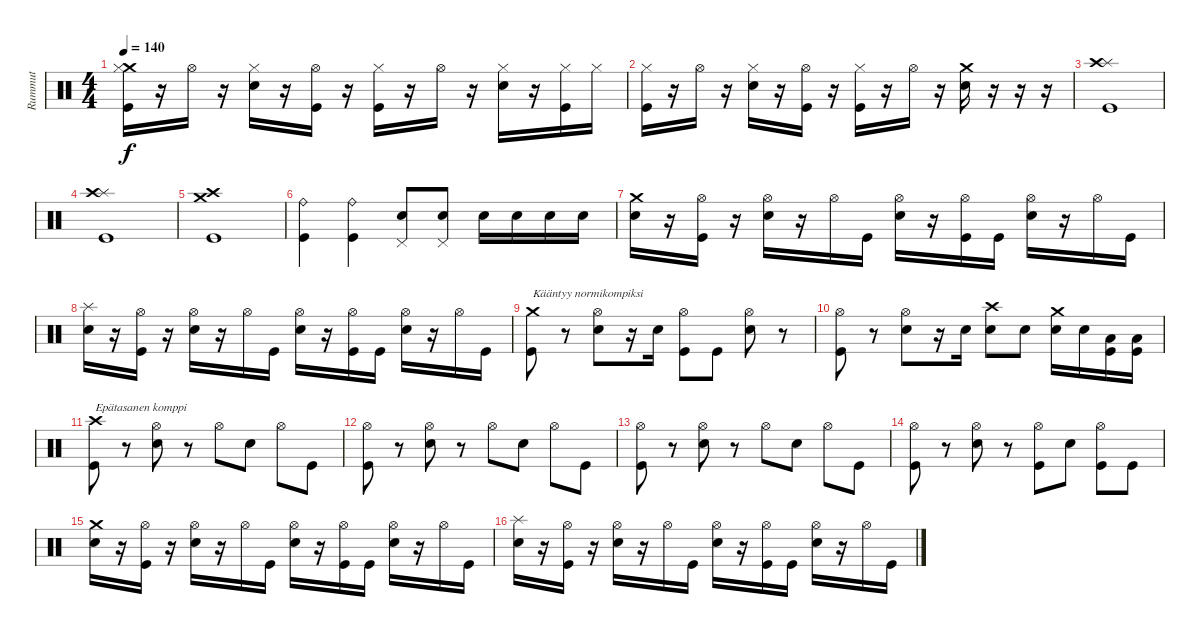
\track ("Rummut" "Rummut") {instrument percussion}
\staff {score}
\articulation defaults
\ts (4 4)
\tempo 140
\clef neutral
\ks c
("Crash medium (hit)" "Hi-Hat (closed)" "Kick (hit)").16{dy f} r.16 "Hi-Hat (open)".16 r.16 ("Hi-Hat (closed)" "Snare (hit) 2").16 r.16 ("Hi-Hat (open)" "Kick (hit)").16 r.16 ("Hi-Hat (closed)" "Kick (hit)").16 r.16 "Hi-Hat (open)".16 r.16 ("Hi-Hat (closed)" "Snare (hit) 2").16 r.16 ("Hi-Hat (closed)" "Kick (hit)").16 "Hi-Hat (closed)".16 |
("Hi-Hat (closed)" "Kick (hit)").16 r.16 "Hi-Hat (open)".16 r.16 ("Hi-Hat (closed)" "Snare (hit) 2").16 r.16 ("Hi-Hat (open)" "Kick (hit)").16 r.16 ("Hi-Hat (closed)" "Kick (hit)").16 r.16 "Hi-Hat (open)".16 r.16 ("Crash medium (hit)" "Snare (hit) 2").16 r.16 r.16 r.16 |
("Splash (hit)" "Crash high (hit)" "Kick (hit)").1 |
("Splash (hit)" "Crash high (hit)" "Kick (hit)").1 |
("Crash high (hit)" "Crash medium (hit)" "Kick (hit)").1 |
("Ride (bell)" "Kick (hit)").4 ("Ride (bell)" "Kick (hit)").4 ("Pedal Hi-Hat (hit)" "Snare (hit) 2").8 ("Pedal Hi-Hat (hit)" "Snare (hit) 2").8 "Snare (hit) 2".16 "Snare (hit) 2".16 "Snare (hit) 2".16 "Snare (hit) 2".16 |
("Crash medium (hit)" "Snare (hit) 2").16 r.16 ("Hi-Hat (open)" "Kick (hit)").16 r.16 ("Hi-Hat (open)" "Snare (hit) 2").16 r.16 "Hi-Hat (open)".16 "Kick (hit)".16 ("Hi-Hat (open)" "Snare (hit) 2").16 r.16 ("Hi-Hat (open)" "Kick (hit)").16 "Kick (hit)".16 ("Hi-Hat (open)" "Snare (hit) 2").16 r.16 "Hi-Hat (open)".16 "Kick (hit)".16 |
("Splash (hit)" "Snare (hit) 2").16 r.16 ("Hi-Hat (open)" "Kick (hit)").16 r.16 ("Hi-Hat (open)" "Snare (hit) 2").16 r.16 "Hi-Hat (open)".16 "Kick (hit)".16 ("Hi-Hat (open)" "Snare (hit) 2").16 r.16 ("Hi-Hat (open)" "Kick (hit)").16 "Kick (hit)".16 ("Hi-Hat (open)" "Snare (hit) 2").16 r.16 "Hi-Hat (open)".16 "Kick (hit)".16 |
("Crash medium (hit)" "Kick (hit)").8{txt "Kääntyy normikompiksi"} r.8 ("Hi-Hat (open)" "Snare (hit) 2").8 r.16 "Snare (hit) 2".16 ("Hi-Hat (open)" "Kick (hit)").8 "Kick (hit)".8 ("Hi-Hat (open)" "Snare (hit) 2").8 r.8 |
("Hi-Hat (open)" "Kick (hit)").8 r.8 ("Hi-Hat (open)" "Snare (hit) 2").8 r.16 "Snare (hit) 2".16 ("Crash high (hit)" "Snare (hit) 2").8 "Snare (hit) 2".8 ("Crash medium (hit)" "Snare (hit) 2").16 "Snare (hit) 2".16 ("Low Tom (hit)" "Kick (hit)").16 ("Low Tom (hit)" "Kick (hit)").16 |
("Crash high (hit)" "Kick (hit)").8{txt "Epätasanen komppi"} r.8 ("Hi-Hat (open)" "Snare (hit) 2").8 r.8 "Hi-Hat (open)".8 "Snare (hit) 2".8 "Hi-Hat (open)".8 "Kick (hit)".8 |
("Hi-Hat (open)" "Kick (hit)").8 r.8 ("Hi-Hat (open)" "Snare (hit) 2").8 r.8 "Hi-Hat (open)".8 "Snare (hit) 2".8 "Hi-Hat (open)".8 "Kick (hit)".8 |
("Hi-Hat (open)" "Kick (hit)").8 r.8 ("Hi-Hat (open)" "Snare (hit) 2").8 r.8 "Hi-Hat (open)".8 "Snare (hit) 2".8 "Hi-Hat (open)".8 "Kick (hit)".8 |
("Hi-Hat (open)" "Kick (hit)").8 r.8 ("Hi-Hat (open)" "Snare (hit) 2").8 r.8 ("Hi-Hat (open)" "Kick (hit)").8 "Snare (hit) 2".8 ("Hi-Hat (open)" "Kick (hit)").8 "Kick (hit)".8 |
("Crash medium (hit)" "Snare (hit) 2").16 r.16 ("Hi-Hat (open)" "Kick (hit)").16 r.16 ("Hi-Hat (open)" "Snare (hit) 2").16 r.16 "Hi-Hat (open)".16 "Kick (hit)".16 ("Hi-Hat (open)" "Snare (hit) 2").16 r.16 ("Hi-Hat (open)" "Kick (hit)").16 "Kick (hit)".16 ("Hi-Hat (open)" "Snare (hit) 2").16 r.16 "Hi-Hat (open)".16 "Kick (hit)".16 |
("Splash (hit)" "Snare (hit) 2").16 r.16 ("Hi-Hat (open)" "Kick (hit)").16 r.16 ("Hi-Hat (open)" "Snare (hit) 2").16 r.16 "Hi-Hat (open)".16 "Kick (hit)".16 ("Hi-Hat (open)" "Snare (hit) 2").16 r.16 ("Hi-Hat (open)" "Kick (hit)").16 "Kick (hit)".16 ("Hi-Hat (open)" "Snare (hit) 2").16 r.16 "Hi-Hat (open)".16 "Kick (hit)".16
